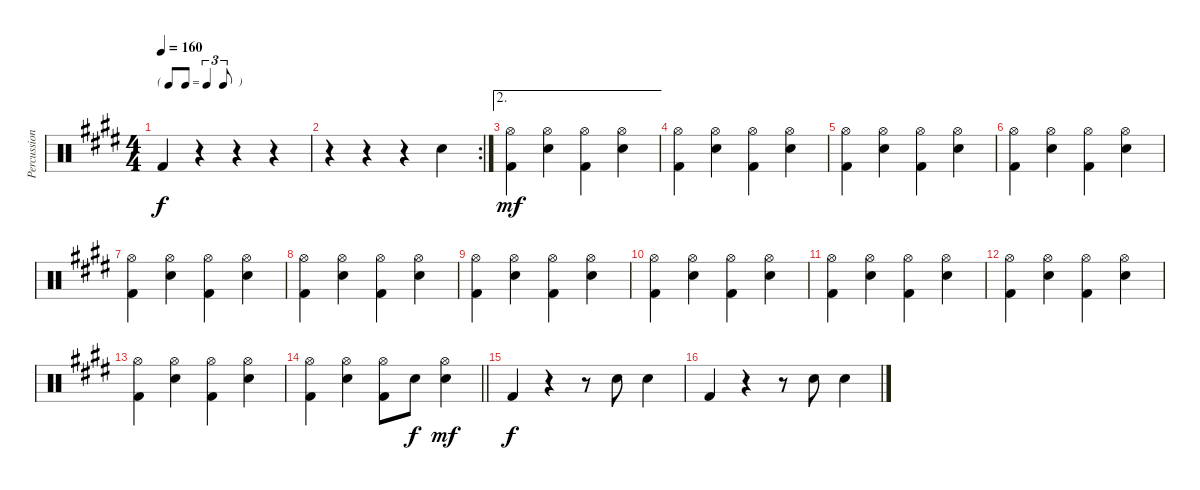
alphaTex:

\track ("Percussion" "Percussion") {instrument percussion}
\staff {score}
\articulation defaults
\ts (4 4)
\tf triplet8th
\tempo 160
\clef neutral
\ks e "Kick (hit) 2".4{dy f}
r.4 r.4 r.4 |
\rc 2
r.4 r.4 r.4 "Snare (hit) 2".4 |
\ae 2
("Hi-Hat (open)" "Kick (hit) 2").4{dy mf} ("Hi-Hat (open)" "Snare (hit) 2").4 ("Hi-Hat (open)" "Kick (hit) 2").4 ("Hi-Hat (open)" "Snare (hit) 2").4 |
("Hi-Hat (open)" "Kick (hit) 2").4 ("Hi-Hat (open)" "Snare (hit) 2").4 ("Hi-Hat (open)" "Kick (hit) 2").4 ("Hi-Hat (open)" "Snare (hit) 2").4 |
("Hi-Hat (open)" "Kick (hit) 2").4 ("Hi-Hat (open)" "Snare (hit) 2").4 ("Hi-Hat (open)" "Kick (hit) 2").4 ("Hi-Hat (open)" "Snare (hit) 2").4 |
("Hi-Hat (open)" "Kick (hit) 2").4 ("Hi-Hat (open)" "Snare (hit) 2").4 ("Hi-Hat (open)" "Kick (hit) 2").4 ("Hi-Hat (open)" "Snare (hit) 2").4 |
("Hi-Hat (open)" "Kick (hit) 2").4 ("Hi-Hat (open)" "Snare (hit) 2").4 ("Hi-Hat (open)" "Kick (hit) 2").4 ("Hi-Hat (open)" "Snare (hit) 2").4 |
("Hi-Hat (open)" "Kick (hit) 2").4 ("Hi-Hat (open)" "Snare (hit) 2").4 ("Hi-Hat (open)" "Kick (hit) 2").4 ("Hi-Hat (open)" "Snare (hit) 2").4 |
("Hi-Hat (open)" "Kick (hit) 2").4 ("Hi-Hat (open)" "Snare (hit) 2").4 ("Hi-Hat (open)" "Kick (hit) 2").4 ("Hi-Hat (open)" "Snare (hit) 2").4 |
("Hi-Hat (open)" "Kick (hit) 2").4 ("Hi-Hat (open)" "Snare (hit) 2").4 ("Hi-Hat (open)" "Kick (hit) 2").4 ("Hi-Hat (open)" "Snare (hit) 2").4 |
("Hi-Hat (open)" "Kick (hit) 2").4 ("Hi-Hat (open)" "Snare (hit) 2").4 ("Hi-Hat (open)" "Kick (hit) 2").4 ("Hi-Hat (open)" "Snare (hit) 2").4 |
("Hi-Hat (open)" "Kick (hit) 2").4 ("Hi-Hat (open)" "Snare (hit) 2").4 ("Hi-Hat (open)" "Kick (hit) 2").4 ("Hi-Hat (open)" "Snare (hit) 2").4 |
("Hi-Hat (open)" "Kick (hit) 2").4 ("Hi-Hat (open)" "Snare (hit) 2").4 ("Hi-Hat (open)" "Kick (hit) 2").4 ("Hi-Hat (open)" "Snare (hit) 2").4 |
\barLineRight lightlight
("Hi-Hat (open)" "Kick (hit) 2").4 ("Hi-Hat (open)" "Snare (hit) 2").4 ("Hi-Hat (open)" "Kick (hit) 2").8 "Snare (hit) 2".8{dy f} ("Hi-Hat (open)" "Snare (hit) 2").4{dy mf} |
"Kick (hit) 2".4{dy f} r.4 r.8 "Snare (hit) 2".8 "Snare (hit) 2".4 |
"Kick (hit) 2".4 r.4 r.8 "Snare (hit) 2".8 "Snare (hit) 2".4
